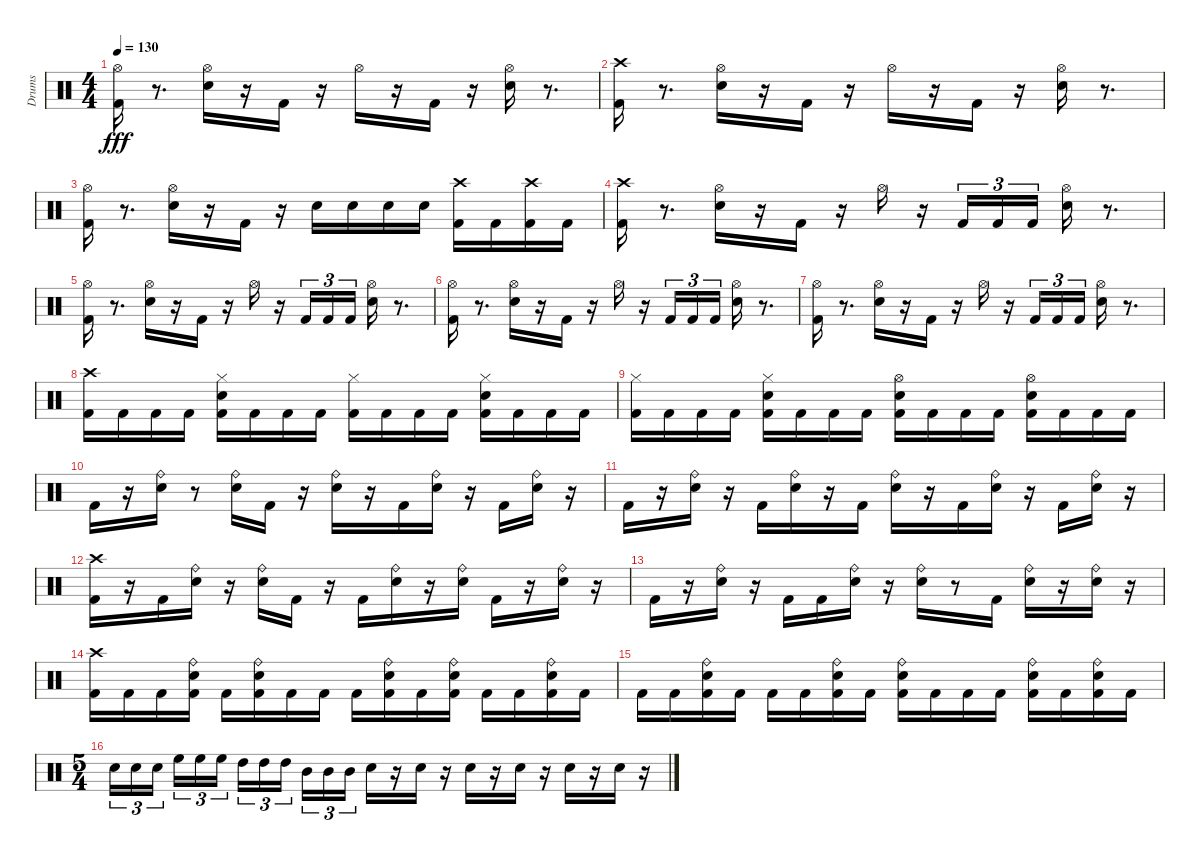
\track ("Drums" "Drums") {instrument percussion}
\staff {score}
\articulation defaults
\ts (4 4)
\tempo 130
\clef neutral
\ks c
("Hi-Hat (open)" "Kick (hit) 2").16{dy fff} r.8{d} ("Electric Snare (hit)" "Hi-Hat (open)").16 r.16 "Kick (hit) 2".16 r.16 "Hi-Hat (open)".16 r.16 "Kick (hit) 2".16 r.16 ("Electric Snare (hit)" "Hi-Hat (open)").16 r.8{d} |
("Kick (hit) 2" "Crash high (hit)").16 r.8{d} ("Electric Snare (hit)" "Hi-Hat (open)").16 r.16 "Kick (hit) 2".16 r.16 "Hi-Hat (open)".16 r.16 "Kick (hit) 2".16 r.16 ("Electric Snare (hit)" "Hi-Hat (open)").16 r.8{d} |
("Kick (hit) 2" "Hi-Hat (open)").16 r.8{d} ("Hi-Hat (open)" "Electric Snare (hit)").16 r.16 "Kick (hit) 2".16 r.16 "Electric Snare (hit)".16 "Electric Snare (hit)".16 "Electric Snare (hit)".16 "Electric Snare (hit)".16 ("Crash high (hit)" "Kick (hit) 2").16 "Kick (hit) 2".16 ("Crash high (hit)" "Kick (hit) 2").16 "Kick (hit) 2".16 |
("Kick (hit) 2" "Crash high (hit)").16 r.8{d} ("Electric Snare (hit)" "Hi-Hat (open)").16 r.16 "Kick (hit) 2".16 r.16 "Hi-Hat (open)".16 r.16 "Kick (hit) 2".16{tu (3 2)} "Kick (hit) 2".16{tu (3 2)} "Kick (hit) 2".16{tu (3 2)} ("Electric Snare (hit)" "Hi-Hat (open)").16 r.8{d} |
("Hi-Hat (open)" "Kick (hit) 2").16 r.8{d} ("Hi-Hat (open)" "Electric Snare (hit)").16 r.16 "Kick (hit) 2".16 r.16 "Hi-Hat (open)".16 r.16 "Kick (hit) 2".16{tu (3 2)} "Kick (hit) 2".16{tu (3 2)} "Kick (hit) 2".16{tu (3 2)} ("Hi-Hat (open)" "Electric Snare (hit)").16 r.8{d} |
("Kick (hit) 2" "Hi-Hat (open)").16 r.8{d} ("Electric Snare (hit)" "Hi-Hat (open)").16 r.16 "Kick (hit) 2".16 r.16 "Hi-Hat (open)".16 r.16 "Kick (hit) 2".16{tu (3 2)} "Kick (hit) 2".16{tu (3 2)} "Kick (hit) 2".16{tu (3 2)} ("Electric Snare (hit)" "Hi-Hat (open)").16 r.8{d} |
("Kick (hit) 2" "Hi-Hat (open)").16 r.8{d} ("Electric Snare (hit)" "Hi-Hat (open)").16 r.16 "Kick (hit) 2".16 r.16 "Hi-Hat (open)".16 r.16 "Kick (hit) 2".16{tu (3 2)} "Kick (hit) 2".16{tu (3 2)} "Kick (hit) 2".16{tu (3 2)} ("Electric Snare (hit)" "Hi-Hat (open)").16 r.8{d} |
("Crash high (hit)" "Kick (hit) 2").16 "Kick (hit) 2".16 "Kick (hit) 2".16 "Kick (hit) 2".16 ("Electric Snare (hit)" "Hi-Hat (closed)" "Kick (hit) 2").16 "Kick (hit) 2".16 "Kick (hit) 2".16 "Kick (hit) 2".16 ("Hi-Hat (closed)" "Kick (hit) 2").16 "Kick (hit) 2".16 "Kick (hit) 2".16 "Kick (hit) 2".16 ("Electric Snare (hit)" "Hi-Hat (closed)" "Kick (hit) 2").16 "Kick (hit) 2".16 "Kick (hit) 2".16 "Kick (hit) 2".16 |
("Hi-Hat (closed)" "Kick (hit) 2").16 "Kick (hit) 2".16 "Kick (hit) 2".16 "Kick (hit) 2".16 ("Electric Snare (hit)" "Hi-Hat (closed)" "Kick (hit) 2").16 "Kick (hit) 2".16 "Kick (hit) 2".16 "Kick (hit) 2".16 ("Hi-Hat (open)" "Electric Snare (hit)" "Kick (hit) 2").16 "Kick (hit) 2".16 "Kick (hit) 2".16 "Kick (hit) 2".16 ("Hi-Hat (open)" "Electric Snare (hit)" "Kick (hit) 2").16 "Kick (hit) 2".16 "Kick (hit) 2".16 "Kick (hit) 2".16 |
"Kick (hit) 2".16 r.16 ("Ride (bell)" "Electric Snare (hit)").16 r.8 ("Ride (bell)" "Electric Snare (hit)").16 "Kick (hit) 2".16 r.16 ("Electric Snare (hit)" "Ride (bell)").16 r.16 "Kick (hit) 2".16 ("Electric Snare (hit)" "Ride (bell)").16 r.16 "Kick (hit) 2".16 ("Electric Snare (hit)" "Ride (bell)").16 r.16 |
"Kick (hit) 2".16 r.16 ("Electric Snare (hit)" "Ride (bell)").16 r.16 "Kick (hit) 2".16 ("Electric Snare (hit)" "Ride (bell)").16 r.16 "Kick (hit) 2".16 ("Ride (bell)" "Electric Snare (hit)").16 r.16 "Kick (hit) 2".16 ("Ride (bell)" "Electric Snare (hit)").16 r.16 "Kick (hit) 2".16 ("Ride (bell)" "Electric Snare (hit)").16 r.16 |
("Crash high (hit)" "Kick (hit) 2").16 r.16 "Kick (hit) 2".16 ("Ride (bell)" "Electric Snare (hit)").16 r.16 ("Ride (bell)" "Electric Snare (hit)").16 "Kick (hit) 2".16 r.16 "Kick (hit) 2".16 ("Ride (bell)" "Electric Snare (hit)").16 r.16 ("Ride (bell)" "Electric Snare (hit)").16 "Kick (hit) 2".16 r.16 ("Ride (bell)" "Electric Snare (hit)").16 r.16 |
"Kick (hit) 2".16 r.16 ("Ride (bell)" "Electric Snare (hit)").16 r.16 "Kick (hit) 2".16 "Kick (hit) 2".16 ("Ride (bell)" "Electric Snare (hit)").16 r.16 ("Ride (bell)" "Electric Snare (hit)").16 r.8 "Kick (hit) 2".16 ("Ride (bell)" "Electric Snare (hit)").16 r.16 ("Ride (bell)" "Electric Snare (hit)").16 r.16 |
("Crash high (hit)" "Kick (hit) 2").16 "Kick (hit) 2".16 "Kick (hit) 2".16 ("Ride (bell)" "Electric Snare (hit)" "Kick (hit) 2").16 "Kick (hit) 2".16 ("Ride (bell)" "Electric Snare (hit)" "Kick (hit) 2").16 "Kick (hit) 2".16 "Kick (hit) 2".16 "Kick (hit) 2".16 ("Ride (bell)" "Electric Snare (hit)" "Kick (hit) 2").16 "Kick (hit) 2".16 ("Ride (bell)" "Electric Snare (hit)" "Kick (hit) 2").16 "Kick (hit) 2".16 "Kick (hit) 2".16 ("Ride (bell)" "Electric Snare (hit)" "Kick (hit) 2").16 "Kick (hit) 2".16 |
"Kick (hit) 2".16 "Kick (hit) 2".16 ("Ride (bell)" "Electric Snare (hit)" "Kick (hit) 2").16 "Kick (hit) 2".16 "Kick (hit) 2".16 "Kick (hit) 2".16 ("Ride (bell)" "Electric Snare (hit)" "Kick (hit) 2").16 "Kick (hit) 2".16 ("Ride (bell)" "Electric Snare (hit)" "Kick (hit) 2").16 "Kick (hit) 2".16 "Kick (hit) 2".16 "Kick (hit) 2".16 ("Ride (bell)" "Electric Snare (hit)" "Kick (hit) 2").16 "Kick (hit) 2".16 ("Ride (bell)" "Electric Snare (hit)" "Kick (hit) 2").16 "Kick (hit) 2".16 |
\ts (5 4)
"Electric Snare (hit)".16{tu (3 2)} "Electric Snare (hit)".16{tu (3 2)} "Electric Snare (hit)".16{tu (3 2)} "High Floor Tom (hit)".16{tu (3 2)} "High Floor Tom (hit)".16{tu (3 2)} "High Floor Tom (hit)".16{tu (3 2)} "High Tom (hit)".16{tu (3 2)} "High Tom (hit)".16{tu (3 2)} "High Tom (hit)".16{tu (3 2)} "Mid Tom (hit)".16{tu (3 2)} "Mid Tom (hit)".16{tu (3 2)} "Mid Tom (hit)".16{tu (3 2)} "Electric Snare (hit)".16 r.16 "Electric Snare (hit)".16 r.16 "Electric Snare (hit)".16 r.16 "Electric Snare (hit)".16 r.16 "Electric Snare (hit)".16 r.16 "Electric Snare (hit)".16 r.16
